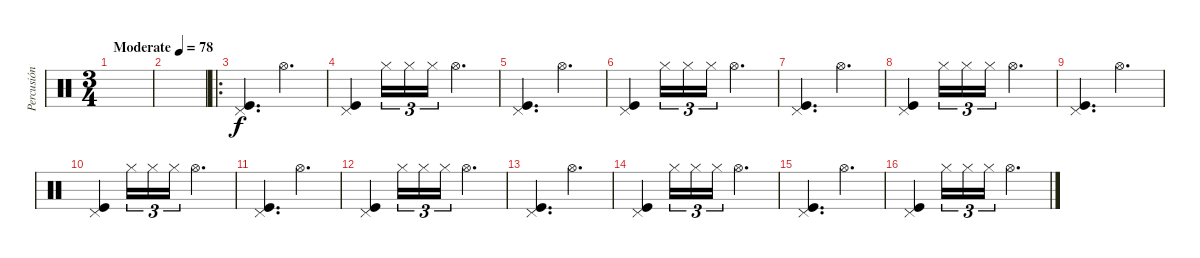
\track ("Percusión" "Percusión") {instrument percussion}
\staff {score}
\articulation defaults
\ts (3 4)
\tempo (78 "Moderate")
\clef neutral
\ks c
|
|
\ro
("Pedal Hi-Hat (hit)" "Kick (hit)").4{d} "Hi-Hat (open)".4{d} |
("Pedal Hi-Hat (hit)" "Kick (hit)").4 "Hi-Hat (closed)".16{tu (3 2)} "Hi-Hat (closed)".16{tu (3 2)} "Hi-Hat (closed)".16{tu (3 2)} "Hi-Hat (open)".4{d} |
("Pedal Hi-Hat (hit)" "Kick (hit)").4{d} "Hi-Hat (open)".4{d} |
("Pedal Hi-Hat (hit)" "Kick (hit)").4 "Hi-Hat (closed)".16{tu (3 2)} "Hi-Hat (closed)".16{tu (3 2)} "Hi-Hat (closed)".16{tu (3 2)} "Hi-Hat (open)".4{d} |
("Pedal Hi-Hat (hit)" "Kick (hit)").4{d} "Hi-Hat (open)".4{d} |
("Pedal Hi-Hat (hit)" "Kick (hit)").4 "Hi-Hat (closed)".16{tu (3 2)} "Hi-Hat (closed)".16{tu (3 2)} "Hi-Hat (closed)".16{tu (3 2)} "Hi-Hat (open)".4{d} |
("Pedal Hi-Hat (hit)" "Kick (hit)").4{d} "Hi-Hat (open)".4{d} |
("Pedal Hi-Hat (hit)" "Kick (hit)").4 "Hi-Hat (closed)".16{tu (3 2)} "Hi-Hat (closed)".16{tu (3 2)} "Hi-Hat (closed)".16{tu (3 2)} "Hi-Hat (open)".4{d} |
("Pedal Hi-Hat (hit)" "Kick (hit)").4{d} "Hi-Hat (open)".4{d} |
("Pedal Hi-Hat (hit)" "Kick (hit)").4 "Hi-Hat (closed)".16{tu (3 2)} "Hi-Hat (closed)".16{tu (3 2)} "Hi-Hat (closed)".16{tu (3 2)} "Hi-Hat (open)".4{d} |
("Pedal Hi-Hat (hit)" "Kick (hit)").4{d} "Hi-Hat (open)".4{d} |
("Pedal Hi-Hat (hit)" "Kick (hit)").4 "Hi-Hat (closed)".16{tu (3 2)} "Hi-Hat (closed)".16{tu (3 2)} "Hi-Hat (closed)".16{tu (3 2)} "Hi-Hat (open)".4{d} |
("Pedal Hi-Hat (hit)" "Kick (hit)").4{d} "Hi-Hat (open)".4{d} |
("Pedal Hi-Hat (hit)" "Kick (hit)").4 "Hi-Hat (closed)".16{tu (3 2)} "Hi-Hat (closed)".16{tu (3 2)} "Hi-Hat (closed)".16{tu (3 2)} "Hi-Hat (open)".4{d}
